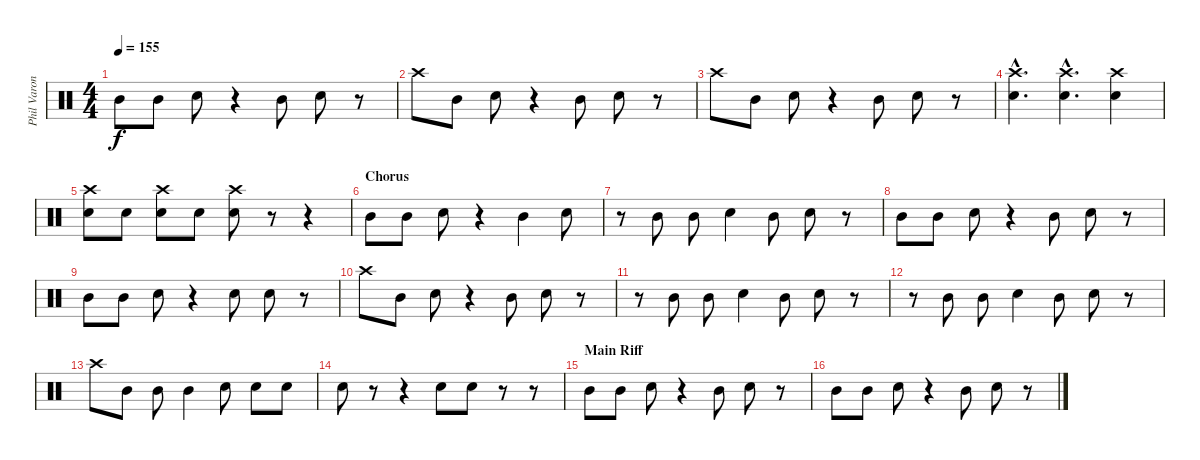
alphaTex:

\track ("Phil Varone" "Phil Varon") {instrument percussion}
\staff {score}
\articulation defaults
\ts (4 4)
\tempo 155
\clef neutral
\ks c "Mid Tom (hit)".8{dy f} "Mid Tom (hit)".8 "Snare (hit) 2".8
r.4 "Mid Tom (hit)".8 "Snare (hit) 2".8 r.8 |
"Crash high (hit)".8 "Mid Tom (hit)".8 "Snare (hit) 2".8 r.4 "Mid Tom (hit)".8 "Snare (hit) 2".8 r.8 |
"Crash high (hit)".8 "Mid Tom (hit)".8 "Snare (hit) 2".8 r.4 "Mid Tom (hit)".8 "Snare (hit) 2".8 r.8 |
("Snare (hit) 2"{hac} "Crash high (hit)"{hac}).4{d} ("Snare (hit) 2"{hac} "Crash high (hit)"{hac}).4{d} ("Snare (hit) 2" "Crash high (hit)").4 |
("Snare (hit) 2" "Crash high (hit)").8 "Snare (hit) 2".8 ("Snare (hit) 2" "Crash high (hit)").8 "Snare (hit) 2".8 ("Snare (hit) 2" "Crash high (hit)").8 r.8 r.4 |
\section ("" "Chorus")
"Mid Tom (hit)".8 "Mid Tom (hit)".8 "Snare (hit) 2".8 r.4 "Mid Tom (hit)".4 "Snare (hit) 2".8 |
r.8 "Mid Tom (hit)".8 "Mid Tom (hit)".8 "Snare (hit) 2".4 "Mid Tom (hit)".8 "Snare (hit) 2".8 r.8 |
"Mid Tom (hit)".8 "Mid Tom (hit)".8 "Snare (hit) 2".8 r.4 "Mid Tom (hit)".8 "Snare (hit) 2".8 r.8 |
"Mid Tom (hit)".8 "Mid Tom (hit)".8 "Snare (hit) 2".8 r.4 "Snare (hit) 2".8 "Snare (hit) 2".8 r.8 |
"Crash high (hit)".8 "Mid Tom (hit)".8 "Snare (hit) 2".8 r.4 "Mid Tom (hit)".8 "Snare (hit) 2".8 r.8 |
r.8 "Mid Tom (hit)".8 "Mid Tom (hit)".8 "Snare (hit) 2".4 "Mid Tom (hit)".8 "Snare (hit) 2".8 r.8 |
r.8 "Mid Tom (hit)".8 "Mid Tom (hit)".8 "Snare (hit) 2".4 "Mid Tom (hit)".8 "Snare (hit) 2".8 r.8 |
"Crash high (hit)".8 "Mid Tom (hit)".8 "Mid Tom (hit)".8 "Mid Tom (hit)".4 "Snare (hit) 2".8 "Snare (hit) 2".8 "Snare (hit) 2".8 |
"Snare (hit) 2".8 r.8 r.4 "Snare (hit) 2".8 "Snare (hit) 2".8 r.8 r.8 |
\section ("" "Main Riff")
"Mid Tom (hit)".8 "Mid Tom (hit)".8 "Snare (hit) 2".8 r.4 "Mid Tom (hit)".8 "Snare (hit) 2".8 r.8 |
"Mid Tom (hit)".8 "Mid Tom (hit)".8 "Snare (hit) 2".8 r.4 "Mid Tom (hit)".8 "Snare (hit) 2".8 r.8
